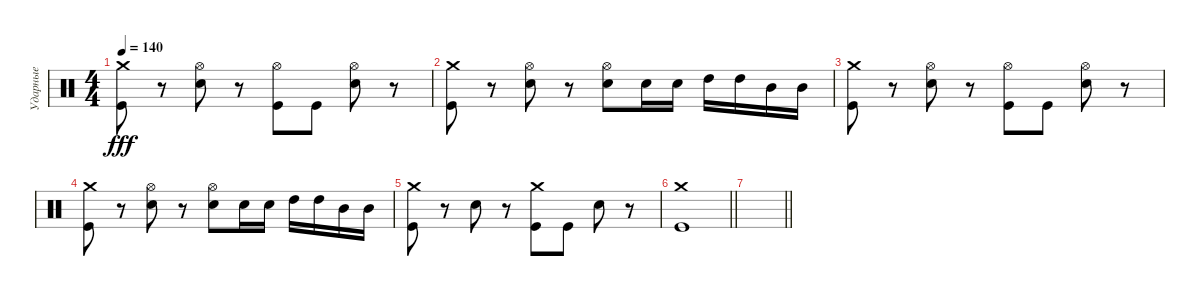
\track ("Ударные" "Ударные") {instrument percussion}
\staff {score}
\articulation defaults
\ts (4 4)
\tempo 140
\clef neutral
\ks c
("Crash medium (hit)" "Kick (hit)").8{dy fff} r.8 ("Hi-Hat (open)" "Electric Snare (hit)").8 r.8 ("Hi-Hat (open)" "Kick (hit)").8 "Kick (hit)".8 ("Hi-Hat (open)" "Electric Snare (hit)").8 r.8 |
("Crash medium (hit)" "Kick (hit)").8 r.8 ("Hi-Hat (open)" "Electric Snare (hit)").8 r.8 ("Hi-Hat (open)" "Electric Snare (hit)").8 "Electric Snare (hit)".16 "Electric Snare (hit)".16 "High Tom (hit)".16 "High Tom (hit)".16 "Mid Tom (hit)".16 "Mid Tom (hit)".16 |
("Crash medium (hit)" "Kick (hit)").8 r.8 ("Hi-Hat (open)" "Electric Snare (hit)").8 r.8 ("Hi-Hat (open)" "Kick (hit)").8 "Kick (hit)".8 ("Hi-Hat (open)" "Electric Snare (hit)").8 r.8 |
("Crash medium (hit)" "Kick (hit)").8 r.8 ("Hi-Hat (open)" "Electric Snare (hit)").8 r.8 ("Hi-Hat (open)" "Electric Snare (hit)").8 "Electric Snare (hit)".16 "Electric Snare (hit)".16 "High Tom (hit)".16 "High Tom (hit)".16 "Mid Tom (hit)".16 "Mid Tom (hit)".16 |
("Crash medium (hit)" "Kick (hit)").8 r.8 "Electric Snare (hit)".8 r.8 ("Crash medium (hit)" "Kick (hit)").8 "Kick (hit)".8 "Electric Snare (hit)".8 r.8 |
\barLineRight lightlight
("Crash medium (hit)" "Kick (hit)").1 |
\barLineRight lightlight
